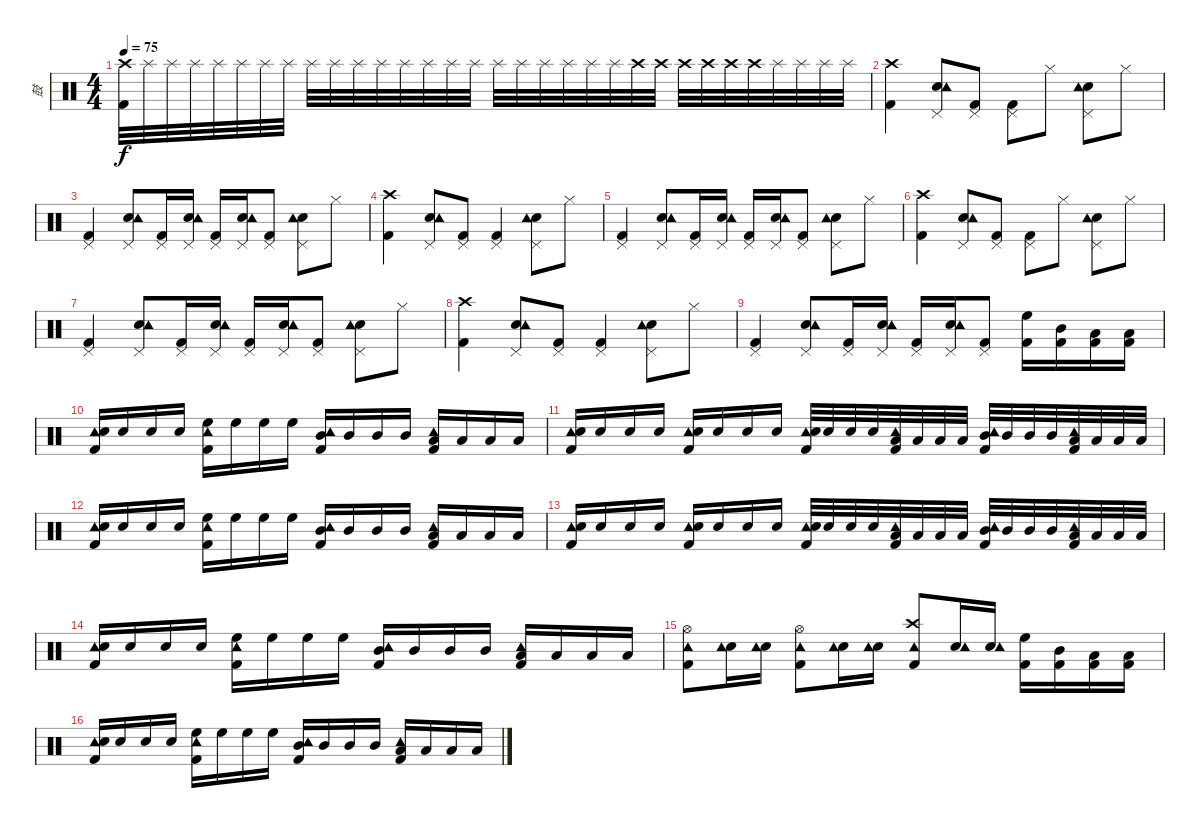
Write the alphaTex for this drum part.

\track ("鼓" "鼓") {instrument percussion}
\staff {score}
\articulation defaults
\ts (4 4)
\tempo 75
\clef neutral
\ks c
("Kick (hit) 2" "Crash high (hit)").32{dy f} "Splash (hit)".32 "Splash (hit)".32 "Splash (hit)".32 "Splash (hit)".32 "Splash (hit)".32 "Splash (hit)".32 "Splash (hit)".32 "Splash (hit)".32 "Splash (hit)".32 "Splash (hit)".32 "Splash (hit)".32 "Splash (hit)".32 "Splash (hit)".32 "Splash (hit)".32 "Splash (hit)".32 "Splash (hit)".32 "Splash (hit)".32 "Splash (hit)".32 "Splash (hit)".32 "Splash (hit)".32 "Splash (hit)".32 "Crash high (hit)".32 "Crash high (hit)".32 "Crash high (hit)".32 "Crash high (hit)".32 "Crash high (hit)".32 "Crash high (hit)".32 "Splash (hit)".32 "Splash (hit)".32 "Splash (hit)".32 "Splash (hit)".32 |
("Kick (hit) 2" "Crash high (hit)").4 ("Snare (hit) 2" "Pedal Hi-Hat (hit)" "Tambourine (hit)").8 ("Kick (hit) 2" "Pedal Hi-Hat (hit)").8 ("Kick (hit) 2" "Pedal Hi-Hat (hit)").8 "Hi-Hat (closed)".8 ("Snare (hit) 2" "Pedal Hi-Hat (hit)" "Tambourine (hit)").8 "Hi-Hat (closed)".8 |
("Kick (hit) 2" "Pedal Hi-Hat (hit)").4 ("Snare (hit) 2" "Pedal Hi-Hat (hit)" "Tambourine (hit)").8 ("Kick (hit) 2" "Pedal Hi-Hat (hit)").16 ("Snare (hit) 2" "Pedal Hi-Hat (hit)" "Tambourine (hit)").16 ("Kick (hit) 2" "Pedal Hi-Hat (hit)").16 ("Snare (hit) 2" "Pedal Hi-Hat (hit)" "Tambourine (hit)").16 ("Kick (hit) 2" "Pedal Hi-Hat (hit)").8 ("Snare (hit) 2" "Pedal Hi-Hat (hit)" "Tambourine (hit)").8 "Hi-Hat (closed)".8 |
("Kick (hit) 2" "Crash high (hit)").4 ("Snare (hit) 2" "Pedal Hi-Hat (hit)" "Tambourine (hit)").8 ("Kick (hit) 2" "Pedal Hi-Hat (hit)").8 ("Kick (hit) 2" "Pedal Hi-Hat (hit)").4 ("Snare (hit) 2" "Pedal Hi-Hat (hit)" "Tambourine (hit)").8 "Hi-Hat (closed)".8 |
("Kick (hit) 2" "Pedal Hi-Hat (hit)").4 ("Snare (hit) 2" "Pedal Hi-Hat (hit)" "Tambourine (hit)").8 ("Kick (hit) 2" "Pedal Hi-Hat (hit)").16 ("Snare (hit) 2" "Pedal Hi-Hat (hit)" "Tambourine (hit)").16 ("Kick (hit) 2" "Pedal Hi-Hat (hit)").16 ("Snare (hit) 2" "Pedal Hi-Hat (hit)" "Tambourine (hit)").16 ("Kick (hit) 2" "Pedal Hi-Hat (hit)").8 ("Snare (hit) 2" "Pedal Hi-Hat (hit)" "Tambourine (hit)").8 "Hi-Hat (closed)".8 |
("Kick (hit) 2" "Crash high (hit)").4 ("Snare (hit) 2" "Pedal Hi-Hat (hit)" "Tambourine (hit)").8 ("Kick (hit) 2" "Pedal Hi-Hat (hit)").8 ("Kick (hit) 2" "Pedal Hi-Hat (hit)").8 "Hi-Hat (closed)".8 ("Snare (hit) 2" "Pedal Hi-Hat (hit)" "Tambourine (hit)").8 "Hi-Hat (closed)".8 |
("Kick (hit) 2" "Pedal Hi-Hat (hit)").4 ("Snare (hit) 2" "Pedal Hi-Hat (hit)" "Tambourine (hit)").8 ("Kick (hit) 2" "Pedal Hi-Hat (hit)").16 ("Snare (hit) 2" "Pedal Hi-Hat (hit)" "Tambourine (hit)").16 ("Kick (hit) 2" "Pedal Hi-Hat (hit)").16 ("Snare (hit) 2" "Pedal Hi-Hat (hit)" "Tambourine (hit)").16 ("Kick (hit) 2" "Pedal Hi-Hat (hit)").8 ("Snare (hit) 2" "Pedal Hi-Hat (hit)" "Tambourine (hit)").8 "Hi-Hat (closed)".8 |
("Kick (hit) 2" "Crash high (hit)").4 ("Snare (hit) 2" "Pedal Hi-Hat (hit)" "Tambourine (hit)").8 ("Kick (hit) 2" "Pedal Hi-Hat (hit)").8 ("Kick (hit) 2" "Pedal Hi-Hat (hit)").4 ("Snare (hit) 2" "Pedal Hi-Hat (hit)" "Tambourine (hit)").8 "Hi-Hat (closed)".8 |
("Kick (hit) 2" "Pedal Hi-Hat (hit)").4 ("Snare (hit) 2" "Pedal Hi-Hat (hit)" "Tambourine (hit)").8 ("Kick (hit) 2" "Pedal Hi-Hat (hit)").16 ("Snare (hit) 2" "Pedal Hi-Hat (hit)" "Tambourine (hit)").16 ("Kick (hit) 2" "Pedal Hi-Hat (hit)").16 ("Snare (hit) 2" "Pedal Hi-Hat (hit)" "Tambourine (hit)").16 ("Kick (hit) 2" "Pedal Hi-Hat (hit)").8 ("Kick (hit) 2" "High Floor Tom (hit)").16 ("Kick (hit) 2" "Mid Tom (hit)").16 ("Kick (hit) 2" "Low Tom (hit)").16 ("Kick (hit) 2" "Low Floor Tom (hit)").16 |
("Kick (hit) 2" "Tambourine (hit)" "Snare (hit) 2").16 "Snare (hit) 2".16 "Snare (hit) 2".16 "Snare (hit) 2".16 ("Kick (hit) 2" "Tambourine (hit)" "High Floor Tom (hit)").16 "High Floor Tom (hit)".16 "High Floor Tom (hit)".16 "High Floor Tom (hit)".16 ("Kick (hit) 2" "Tambourine (hit)" "Mid Tom (hit)").16 "Mid Tom (hit)".16 "Mid Tom (hit)".16 "Mid Tom (hit)".16 ("Kick (hit) 2" "Tambourine (hit)" "Low Floor Tom (hit)").16 "Low Floor Tom (hit)".16 "Low Floor Tom (hit)".16 "Low Floor Tom (hit)".16 |
("Kick (hit) 2" "Tambourine (hit)" "Snare (hit) 2").16 "Snare (hit) 2".16 "Snare (hit) 2".16 "Snare (hit) 2".16 ("Kick (hit) 2" "Tambourine (hit)" "Snare (hit) 2").16 "Snare (hit) 2".16 "Snare (hit) 2".16 "Snare (hit) 2".16 ("Kick (hit) 2" "Tambourine (hit)" "Snare (hit) 2").32 "Snare (hit) 2".32 "Snare (hit) 2".32 "Snare (hit) 2".32 ("Kick (hit) 2" "Tambourine (hit)" "Low Tom (hit)").32 "Low Tom (hit)".32 "Low Tom (hit)".32 "Low Tom (hit)".32 ("Kick (hit) 2" "Tambourine (hit)" "Mid Tom (hit)").32 "Mid Tom (hit)".32 "Mid Tom (hit)".32 "Mid Tom (hit)".32 ("Kick (hit) 2" "Tambourine (hit)" "Low Tom (hit)").32 "Low Tom (hit)".32 "Low Tom (hit)".32 "Low Tom (hit)".32 |
("Kick (hit) 2" "Tambourine (hit)" "Snare (hit) 2").16 "Snare (hit) 2".16 "Snare (hit) 2".16 "Snare (hit) 2".16 ("Kick (hit) 2" "Tambourine (hit)" "High Floor Tom (hit)").16 "High Floor Tom (hit)".16 "High Floor Tom (hit)".16 "High Floor Tom (hit)".16 ("Kick (hit) 2" "Tambourine (hit)" "Mid Tom (hit)").16 "Mid Tom (hit)".16 "Mid Tom (hit)".16 "Mid Tom (hit)".16 ("Kick (hit) 2" "Tambourine (hit)" "Low Floor Tom (hit)").16 "Low Floor Tom (hit)".16 "Low Floor Tom (hit)".16 "Low Floor Tom (hit)".16 |
("Kick (hit) 2" "Tambourine (hit)" "Snare (hit) 2").16 "Snare (hit) 2".16 "Snare (hit) 2".16 "Snare (hit) 2".16 ("Kick (hit) 2" "Tambourine (hit)" "Snare (hit) 2").16 "Snare (hit) 2".16 "Snare (hit) 2".16 "Snare (hit) 2".16 ("Kick (hit) 2" "Tambourine (hit)" "Snare (hit) 2").32 "Snare (hit) 2".32 "Snare (hit) 2".32 "Snare (hit) 2".32 ("Kick (hit) 2" "Tambourine (hit)" "Low Tom (hit)").32 "Low Tom (hit)".32 "Low Tom (hit)".32 "Low Tom (hit)".32 ("Kick (hit) 2" "Tambourine (hit)" "Mid Tom (hit)").32 "Mid Tom (hit)".32 "Mid Tom (hit)".32 "Mid Tom (hit)".32 ("Kick (hit) 2" "Tambourine (hit)" "Low Floor Tom (hit)").32 "Low Floor Tom (hit)".32 "Low Floor Tom (hit)".32 "Low Floor Tom (hit)".32 |
("Kick (hit) 2" "Tambourine (hit)" "Snare (hit) 2").16 "Snare (hit) 2".16 "Snare (hit) 2".16 "Snare (hit) 2".16 ("Kick (hit) 2" "Tambourine (hit)" "High Floor Tom (hit)").16 "High Floor Tom (hit)".16 "High Floor Tom (hit)".16 "High Floor Tom (hit)".16 ("Kick (hit) 2" "Tambourine (hit)" "Mid Tom (hit)").16 "Mid Tom (hit)".16 "Mid Tom (hit)".16 "Mid Tom (hit)".16 ("Kick (hit) 2" "Tambourine (hit)" "Low Floor Tom (hit)").16 "Low Floor Tom (hit)".16 "Low Floor Tom (hit)".16 "Low Floor Tom (hit)".16 |
("Hi-Hat (open)" "Kick (hit) 2" "Tambourine (hit)").8 ("Snare (hit) 2" "Tambourine (hit)").16 ("Snare (hit) 2" "Tambourine (hit)").16 ("Hi-Hat (open)" "Kick (hit) 2" "Tambourine (hit)").8 ("Snare (hit) 2" "Tambourine (hit)").16 ("Snare (hit) 2" "Tambourine (hit)").16 ("Crash high (hit)" "Kick (hit) 2" "Tambourine (hit)").8 ("Snare (hit) 2" "Tambourine (hit)").16 ("Snare (hit) 2" "Tambourine (hit)").16 ("Kick (hit) 2" "High Floor Tom (hit)").16 ("Kick (hit) 2" "Mid Tom (hit)").16 ("Kick (hit) 2" "Low Tom (hit)").16 ("Kick (hit) 2" "Low Floor Tom (hit)").16 |
("Kick (hit) 2" "Tambourine (hit)" "Snare (hit) 2").16 "Snare (hit) 2".16 "Snare (hit) 2".16 "Snare (hit) 2".16 ("Kick (hit) 2" "Tambourine (hit)" "High Floor Tom (hit)").16 "High Floor Tom (hit)".16 "High Floor Tom (hit)".16 "High Floor Tom (hit)".16 ("Kick (hit) 2" "Tambourine (hit)" "Mid Tom (hit)").16 "Mid Tom (hit)".16 "Mid Tom (hit)".16 "Mid Tom (hit)".16 ("Kick (hit) 2" "Tambourine (hit)" "Low Floor Tom (hit)").16 "Low Floor Tom (hit)".16 "Low Floor Tom (hit)".16 "Low Floor Tom (hit)".16
